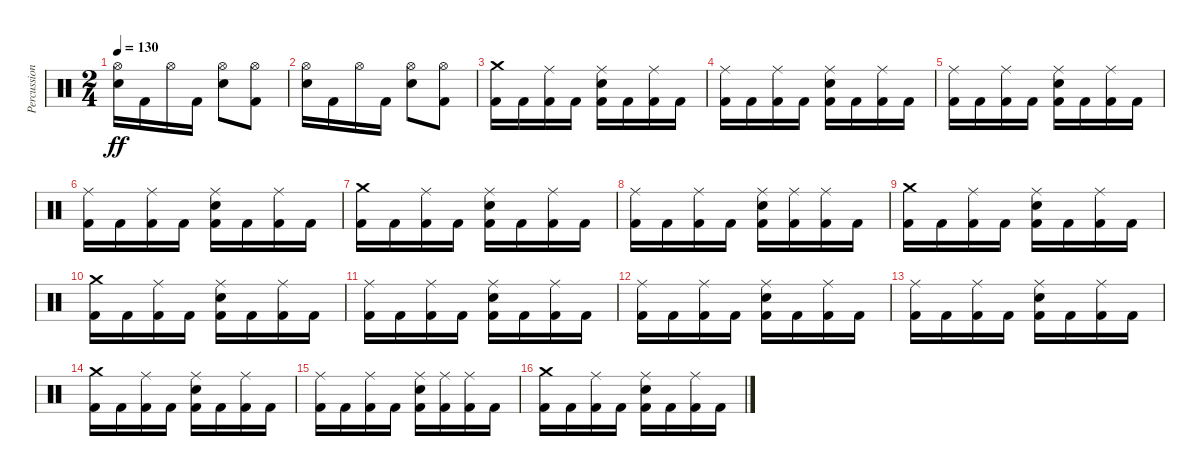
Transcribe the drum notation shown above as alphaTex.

\track ("Percussion" "Percussion") {instrument percussion}
\staff {score}
\articulation defaults
\ts (2 4)
\tempo 130
\clef neutral
\ks c
("Hi-Hat (open)" "Snare (hit) 2").16{dy ff} "Kick (hit) 2".16 "Hi-Hat (open)".16 "Kick (hit) 2".16 ("Hi-Hat (open)" "Snare (hit) 2").8 ("Hi-Hat (open)" "Kick (hit) 2").8 |
("Hi-Hat (open)" "Snare (hit) 2").16 "Kick (hit) 2".16 "Hi-Hat (open)".16 "Kick (hit) 2".16 ("Hi-Hat (open)" "Snare (hit) 2").8 ("Hi-Hat (open)" "Kick (hit) 2").8 |
("Crash medium (hit)" "Kick (hit) 2").16 "Kick (hit) 2".16 ("Ride (middle)" "Kick (hit) 2").16 "Kick (hit) 2".16 ("Ride (middle)" "Snare (hit) 2" "Kick (hit) 2").16 "Kick (hit) 2".16 ("Ride (middle)" "Kick (hit) 2").16 "Kick (hit) 2".16 |
("Ride (middle)" "Kick (hit) 2").16 "Kick (hit) 2".16 ("Ride (middle)" "Kick (hit) 2").16 "Kick (hit) 2".16 ("Ride (middle)" "Snare (hit) 2" "Kick (hit) 2").16 "Kick (hit) 2".16 ("Ride (middle)" "Kick (hit) 2").16 "Kick (hit) 2".16 |
("Ride (middle)" "Kick (hit) 2").16 "Kick (hit) 2".16 ("Ride (middle)" "Kick (hit) 2").16 "Kick (hit) 2".16 ("Ride (middle)" "Snare (hit) 2" "Kick (hit) 2").16 "Kick (hit) 2".16 ("Ride (middle)" "Kick (hit) 2").16 "Kick (hit) 2".16 |
("Ride (middle)" "Kick (hit) 2").16 "Kick (hit) 2".16 ("Ride (middle)" "Kick (hit) 2").16 "Kick (hit) 2".16 ("Ride (middle)" "Snare (hit) 2" "Kick (hit) 2").16 "Kick (hit) 2".16 ("Ride (middle)" "Kick (hit) 2").16 "Kick (hit) 2".16 |
("Crash medium (hit)" "Kick (hit) 2").16 "Kick (hit) 2".16 ("Ride (middle)" "Kick (hit) 2").16 "Kick (hit) 2".16 ("Ride (middle)" "Snare (hit) 2" "Kick (hit) 2").16 "Kick (hit) 2".16 ("Ride (middle)" "Kick (hit) 2").16 "Kick (hit) 2".16 |
("Ride (middle)" "Kick (hit) 2").16 "Kick (hit) 2".16 ("Ride (middle)" "Kick (hit) 2").16 "Kick (hit) 2".16 ("Ride (middle)" "Snare (hit) 2" "Kick (hit) 2").16 ("Ride (middle)" "Kick (hit) 2").16 ("Ride (middle)" "Kick (hit) 2").16 "Kick (hit) 2".16 |
("Crash medium (hit)" "Kick (hit) 2").16 "Kick (hit) 2".16 ("Ride (middle)" "Kick (hit) 2").16 "Kick (hit) 2".16 ("Ride (middle)" "Snare (hit) 2" "Kick (hit) 2").16 "Kick (hit) 2".16 ("Ride (middle)" "Kick (hit) 2").16 "Kick (hit) 2".16 |
("Crash medium (hit)" "Kick (hit) 2").16{volume 0} "Kick (hit) 2".16 ("Ride (middle)" "Kick (hit) 2").16 "Kick (hit) 2".16 ("Ride (middle)" "Snare (hit) 2" "Kick (hit) 2").16 "Kick (hit) 2".16 ("Ride (middle)" "Kick (hit) 2").16 "Kick (hit) 2".16 |
("Ride (middle)" "Kick (hit) 2").16 "Kick (hit) 2".16 ("Ride (middle)" "Kick (hit) 2").16 "Kick (hit) 2".16 ("Ride (middle)" "Snare (hit) 2" "Kick (hit) 2").16 "Kick (hit) 2".16 ("Ride (middle)" "Kick (hit) 2").16 "Kick (hit) 2".16 |
("Ride (middle)" "Kick (hit) 2").16 "Kick (hit) 2".16 ("Ride (middle)" "Kick (hit) 2").16 "Kick (hit) 2".16 ("Ride (middle)" "Snare (hit) 2" "Kick (hit) 2").16 "Kick (hit) 2".16 ("Ride (middle)" "Kick (hit) 2").16 "Kick (hit) 2".16 |
("Ride (middle)" "Kick (hit) 2").16 "Kick (hit) 2".16 ("Ride (middle)" "Kick (hit) 2").16 "Kick (hit) 2".16 ("Ride (middle)" "Snare (hit) 2" "Kick (hit) 2").16 "Kick (hit) 2".16 ("Ride (middle)" "Kick (hit) 2").16 "Kick (hit) 2".16 |
("Crash medium (hit)" "Kick (hit) 2").16 "Kick (hit) 2".16 ("Ride (middle)" "Kick (hit) 2").16 "Kick (hit) 2".16 ("Ride (middle)" "Snare (hit) 2" "Kick (hit) 2").16 "Kick (hit) 2".16 ("Ride (middle)" "Kick (hit) 2").16 "Kick (hit) 2".16 |
("Ride (middle)" "Kick (hit) 2").16 "Kick (hit) 2".16 ("Ride (middle)" "Kick (hit) 2").16 "Kick (hit) 2".16 ("Ride (middle)" "Snare (hit) 2" "Kick (hit) 2").16 ("Ride (middle)" "Kick (hit) 2").16 ("Ride (middle)" "Kick (hit) 2").16 "Kick (hit) 2".16 |
("Crash medium (hit)" "Kick (hit) 2").16 "Kick (hit) 2".16 ("Ride (middle)" "Kick (hit) 2").16 "Kick (hit) 2".16 ("Ride (middle)" "Snare (hit) 2" "Kick (hit) 2").16 "Kick (hit) 2".16 ("Ride (middle)" "Kick (hit) 2").16 "Kick (hit) 2".16
